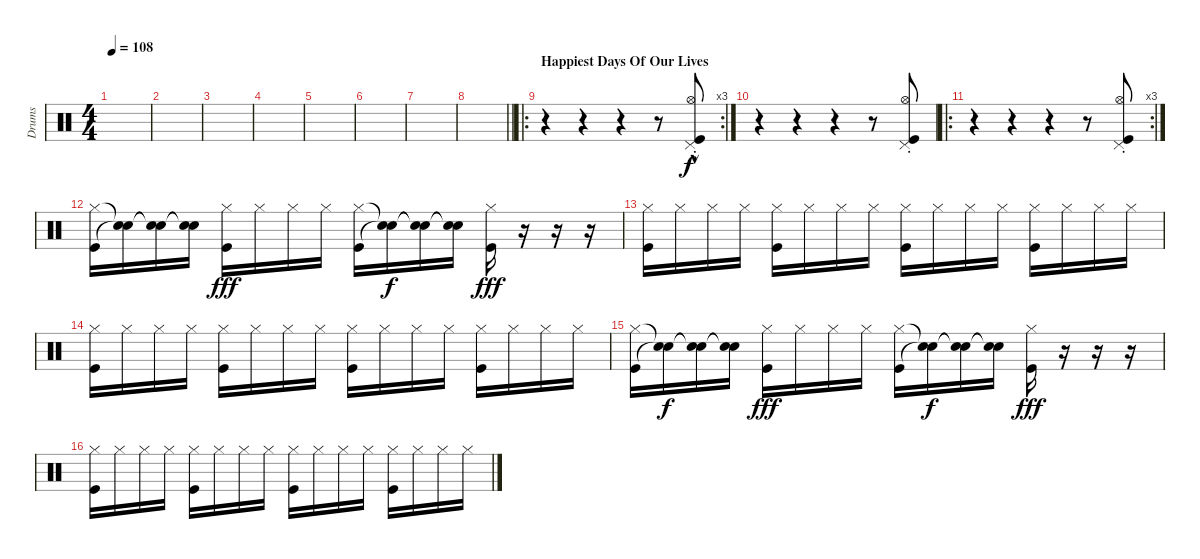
\track ("Drums" "Drums") {instrument percussion}
\staff {score}
\articulation defaults
\ts (4 4)
\tempo 108
\clef neutral
\ks c
|
|
|
|
|
|
|
\barLineRight lightlight
|
\ro
\rc 3
\section ("" "Happiest Days Of Our Lives")
r.4 r.4 r.4 r.8 ("Kick (hit)"{st} "Hi-Hat (open)"{hac} "Pedal Hi-Hat (hit)").8 |
r.4 r.4 r.4 r.8 ("Pedal Hi-Hat (hit)" "Hi-Hat (open)" "Kick (hit)"{st}).8 |
\ro
\rc 3
r.4 r.4 r.4 r.8 ("Pedal Hi-Hat (hit)" "Hi-Hat (open)"{st} "Kick (hit)"{st}).8 |
("Hi-Hat (closed)" "Kick (hit)").16 ("Snare (hit)"{t} "Snare (hit)"{t}).16{dy f} ("Snare (hit)"{t} "Snare (hit)"{t}).16 ("Snare (hit)"{t} "Snare (hit)"{t}).16 ("Hi-Hat (closed)" "Kick (hit)").16{dy fff} "Hi-Hat (closed)".16 "Hi-Hat (closed)".16 "Hi-Hat (closed)".16 ("Hi-Hat (closed)" "Kick (hit)").16 ("Snare (hit)"{t} "Snare (hit)"{t}).16{dy f} ("Snare (hit)"{t} "Snare (hit)"{t}).16 ("Snare (hit)"{t} "Snare (hit)"{t}).16 ("Hi-Hat (closed)" "Kick (hit)").16{dy fff} r.16 r.16 r.16 |
("Hi-Hat (closed)" "Kick (hit)").16 "Hi-Hat (closed)".16 "Hi-Hat (closed)".16 "Hi-Hat (closed)".16 ("Hi-Hat (closed)" "Kick (hit)").16 "Hi-Hat (closed)".16 "Hi-Hat (closed)".16 "Hi-Hat (closed)".16 ("Hi-Hat (closed)" "Kick (hit)").16 "Hi-Hat (closed)".16 "Hi-Hat (closed)".16 "Hi-Hat (closed)".16 ("Hi-Hat (closed)" "Kick (hit)").16 "Hi-Hat (closed)".16 "Hi-Hat (closed)".16 "Hi-Hat (closed)".16 |
("Hi-Hat (closed)" "Kick (hit)").16 "Hi-Hat (closed)".16 "Hi-Hat (closed)".16 "Hi-Hat (closed)".16 ("Hi-Hat (closed)" "Kick (hit)").16 "Hi-Hat (closed)".16 "Hi-Hat (closed)".16 "Hi-Hat (closed)".16 ("Hi-Hat (closed)" "Kick (hit)").16 "Hi-Hat (closed)".16 "Hi-Hat (closed)".16 "Hi-Hat (closed)".16 ("Hi-Hat (closed)" "Kick (hit)").16 "Hi-Hat (closed)".16 "Hi-Hat (closed)".16 "Hi-Hat (closed)".16 |
("Hi-Hat (closed)" "Kick (hit)").16 ("Snare (hit)"{t} "Snare (hit)"{t}).16{dy f} ("Snare (hit)"{t} "Snare (hit)"{t}).16 ("Snare (hit)"{t} "Snare (hit)"{t}).16 ("Hi-Hat (closed)" "Kick (hit)").16{dy fff} "Hi-Hat (closed)".16 "Hi-Hat (closed)".16 "Hi-Hat (closed)".16 ("Hi-Hat (closed)" "Kick (hit)").16 ("Snare (hit)"{t} "Snare (hit)"{t}).16{dy f} ("Snare (hit)"{t} "Snare (hit)"{t}).16 ("Snare (hit)"{t} "Snare (hit)"{t}).16 ("Hi-Hat (closed)" "Kick (hit)").16{dy fff} r.16 r.16 r.16 |
("Hi-Hat (closed)" "Kick (hit)").16 "Hi-Hat (closed)".16 "Hi-Hat (closed)".16 "Hi-Hat (closed)".16 ("Hi-Hat (closed)" "Kick (hit)").16 "Hi-Hat (closed)".16 "Hi-Hat (closed)".16 "Hi-Hat (closed)".16 ("Hi-Hat (closed)" "Kick (hit)").16 "Hi-Hat (closed)".16 "Hi-Hat (closed)".16 "Hi-Hat (closed)".16 ("Hi-Hat (closed)" "Kick (hit)").16 "Hi-Hat (closed)".16 "Hi-Hat (closed)".16 "Hi-Hat (closed)".16
